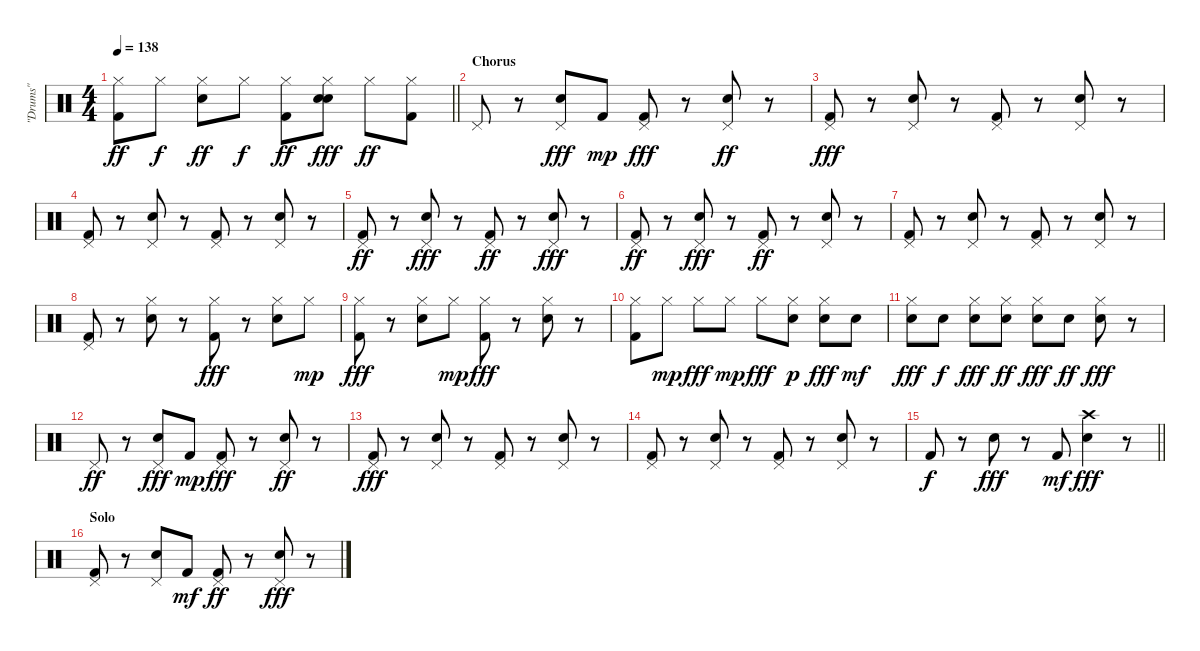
\track ("\"Drums\"" "\"Drums\"") {instrument percussion}
\staff {score}
\articulation defaults
\ts (4 4)
\tempo 138
\clef neutral
\barLineRight lightlight
\ks c
("Kick (hit) 2" "Hi-Hat (closed)").8{dy ff} "Hi-Hat (closed)".8{dy f} ("Electric Snare (hit)" "Hi-Hat (closed)").8{dy ff} "Hi-Hat (closed)".8{dy f} ("Kick (hit) 2" "Hi-Hat (closed)").8{dy ff} ("Snare (hit) 2" "Electric Snare (hit)" "Hi-Hat (closed)").8{dy fff} "Hi-Hat (closed)".8{dy ff} ("Kick (hit) 2" "Hi-Hat (closed)").8 |
\section ("" "Chorus")
"Pedal Hi-Hat (hit)".8 r.8 ("Electric Snare (hit)" "Pedal Hi-Hat (hit)").8{dy fff} "Kick (hit) 2".8{dy mp} ("Kick (hit) 2" "Pedal Hi-Hat (hit)").8{dy fff} r.8 ("Electric Snare (hit)" "Pedal Hi-Hat (hit)").8{dy ff} r.8 |
("Kick (hit) 2" "Pedal Hi-Hat (hit)").8{dy fff} r.8 ("Electric Snare (hit)" "Pedal Hi-Hat (hit)").8 r.8 ("Kick (hit) 2" "Pedal Hi-Hat (hit)").8 r.8 ("Electric Snare (hit)" "Pedal Hi-Hat (hit)").8 r.8 |
("Kick (hit) 2" "Pedal Hi-Hat (hit)").8 r.8 ("Electric Snare (hit)" "Pedal Hi-Hat (hit)").8 r.8 ("Kick (hit) 2" "Pedal Hi-Hat (hit)").8 r.8 ("Electric Snare (hit)" "Pedal Hi-Hat (hit)").8 r.8 |
("Kick (hit) 2" "Pedal Hi-Hat (hit)").8{dy ff} r.8 ("Electric Snare (hit)" "Pedal Hi-Hat (hit)").8{dy fff} r.8 ("Kick (hit) 2" "Pedal Hi-Hat (hit)").8{dy ff} r.8 ("Electric Snare (hit)" "Pedal Hi-Hat (hit)").8{dy fff} r.8 |
("Kick (hit) 2" "Pedal Hi-Hat (hit)").8{dy ff} r.8 ("Electric Snare (hit)" "Pedal Hi-Hat (hit)").8{dy fff} r.8 ("Kick (hit) 2" "Pedal Hi-Hat (hit)").8{dy ff} r.8 ("Electric Snare (hit)" "Pedal Hi-Hat (hit)").8 r.8 |
("Kick (hit) 2" "Pedal Hi-Hat (hit)").8 r.8 ("Electric Snare (hit)" "Pedal Hi-Hat (hit)").8 r.8 ("Kick (hit) 2" "Pedal Hi-Hat (hit)").8 r.8 ("Electric Snare (hit)" "Pedal Hi-Hat (hit)").8 r.8 |
("Kick (hit) 2" "Pedal Hi-Hat (hit)").8 r.8 ("Electric Snare (hit)" "Hi-Hat (closed)").8 r.8 ("Kick (hit) 2" "Hi-Hat (closed)").8{dy fff} r.8 ("Electric Snare (hit)" "Hi-Hat (closed)").8 "Hi-Hat (closed)".8{dy mp} |
("Kick (hit) 2" "Hi-Hat (closed)").8{dy fff} r.8 ("Electric Snare (hit)" "Hi-Hat (closed)").8 "Hi-Hat (closed)".8{dy mp} ("Kick (hit) 2" "Hi-Hat (closed)").8{dy fff} r.8 ("Electric Snare (hit)" "Hi-Hat (closed)").8 r.8 |
("Kick (hit) 2" "Hi-Hat (closed)").8 "Hi-Hat (closed)".8{dy mp} "Hi-Hat (closed)".8{dy fff} "Hi-Hat (closed)".8{dy mp} "Hi-Hat (closed)".8{dy fff} ("Electric Snare (hit)" "Hi-Hat (closed)").8{dy p} ("Electric Snare (hit)" "Hi-Hat (closed)").8{dy fff} "Electric Snare (hit)".8{dy mf} |
("Electric Snare (hit)" "Hi-Hat (closed)").8{dy fff} "Electric Snare (hit)".8{dy f} ("Electric Snare (hit)" "Hi-Hat (closed)").8{dy fff} ("Electric Snare (hit)" "Hi-Hat (closed)").8{dy ff} ("Electric Snare (hit)" "Hi-Hat (closed)").8{dy fff} "Electric Snare (hit)".8{dy ff} ("Electric Snare (hit)" "Hi-Hat (closed)").8{dy fff} r.8 |
"Pedal Hi-Hat (hit)".8{dy ff} r.8 ("Electric Snare (hit)" "Pedal Hi-Hat (hit)").8{dy fff} "Kick (hit) 2".8{dy mp} ("Kick (hit) 2" "Pedal Hi-Hat (hit)").8{dy fff} r.8 ("Electric Snare (hit)" "Pedal Hi-Hat (hit)").8{dy ff} r.8 |
("Kick (hit) 2" "Pedal Hi-Hat (hit)").8{dy fff} r.8 ("Electric Snare (hit)" "Pedal Hi-Hat (hit)").8 r.8 ("Kick (hit) 2" "Pedal Hi-Hat (hit)").8 r.8 ("Electric Snare (hit)" "Pedal Hi-Hat (hit)").8 r.8 |
("Kick (hit) 2" "Pedal Hi-Hat (hit)").8 r.8 ("Electric Snare (hit)" "Pedal Hi-Hat (hit)").8 r.8 ("Kick (hit) 2" "Pedal Hi-Hat (hit)").8 r.8 ("Electric Snare (hit)" "Pedal Hi-Hat (hit)").8 r.8 |
\barLineRight lightlight "Kick (hit) 2".8{dy f}
r.8 "Electric Snare (hit)".8{dy fff} r.8 "Kick (hit) 2".8{dy mf} ("Electric Snare (hit)" "Crash high (hit)").4{dy fff} r.8 |
\section ("" "Solo")
("Kick (hit) 2" "Pedal Hi-Hat (hit)").8 r.8 ("Electric Snare (hit)" "Pedal Hi-Hat (hit)").8 "Kick (hit) 2".8{dy mf} ("Kick (hit) 2" "Pedal Hi-Hat (hit)").8{dy ff} r.8 ("Electric Snare (hit)" "Pedal Hi-Hat (hit)").8{dy fff} r.8
